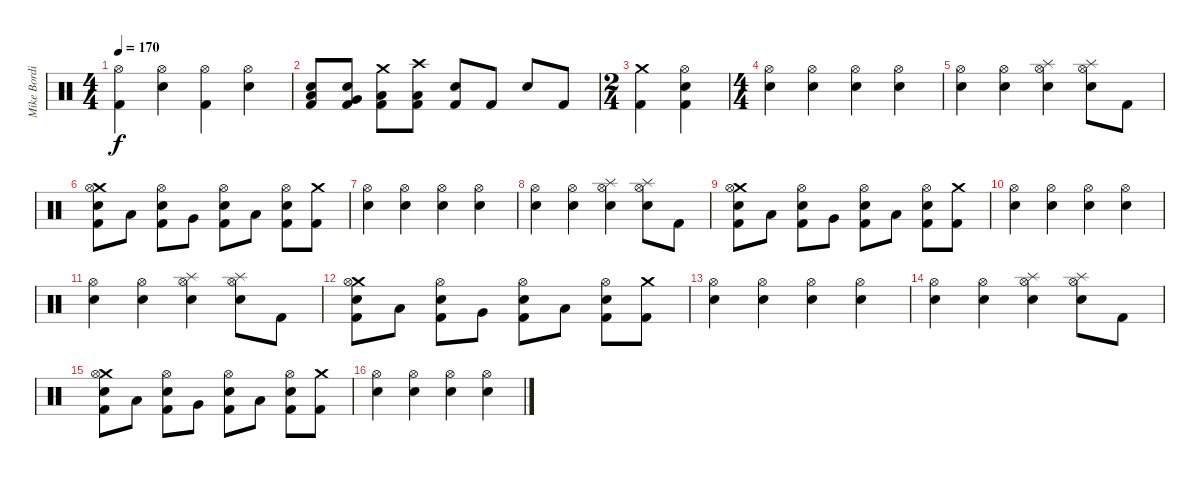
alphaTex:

\track ("Mike Bordin" "Mike Bordi") {instrument percussion}
\staff {score}
\articulation defaults
\ts (4 4)
\tempo 170
\clef neutral
\ks c
("Hi-Hat (open)" "Kick (hit) 2").4{dy f} ("Hi-Hat (open)" "Electric Snare (hit)").4 ("Hi-Hat (open)" "Kick (hit) 2").4 ("Hi-Hat (open)" "Electric Snare (hit)").4 |
("Electric Snare (hit)" "Low Tom (hit)" "Kick (hit) 2").8 ("Electric Snare (hit)" "Very Low Tom (hit)" "Kick (hit) 2").8 ("Crash medium (hit)" "Low Floor Tom (hit)" "Kick (hit) 2").8 ("Crash high (hit)" "Low Floor Tom (hit)" "Kick (hit) 2").8 ("Electric Snare (hit)" "Kick (hit) 2").8 "Kick (hit) 2".8 "Electric Snare (hit)".8 "Kick (hit) 2".8 |
\ts (2 4)
("Crash medium (hit)" "Kick (hit) 2").4 ("Hi-Hat (open)" "Electric Snare (hit)" "Kick (hit) 2").4 |
\ts (4 4)
("Hi-Hat (open)" "Electric Snare (hit)").4 ("Hi-Hat (open)" "Electric Snare (hit)").4 ("Hi-Hat (open)" "Electric Snare (hit)").4 ("Hi-Hat (open)" "Electric Snare (hit)").4 |
("Hi-Hat (open)" "Electric Snare (hit)").4 ("Hi-Hat (open)" "Electric Snare (hit)").4 ("Splash (hit)" "Hi-Hat (open)" "Electric Snare (hit)").4 ("Splash (hit)" "Hi-Hat (open)" "Electric Snare (hit)").8 "Kick (hit) 2".8 |
("Crash medium (hit)" "Hi-Hat (open)" "Electric Snare (hit)" "Kick (hit) 2").8 "Low Floor Tom (hit)".8 ("Hi-Hat (open)" "Electric Snare (hit)" "Kick (hit) 2").8 "Very Low Tom (hit)".8 ("Hi-Hat (open)" "Electric Snare (hit)" "Kick (hit) 2").8 "Low Floor Tom (hit)".8 ("Hi-Hat (open)" "Electric Snare (hit)" "Kick (hit) 2").8 ("Crash medium (hit)" "Kick (hit) 2").8 |
("Hi-Hat (open)" "Electric Snare (hit)").4 ("Hi-Hat (open)" "Electric Snare (hit)").4 ("Hi-Hat (open)" "Electric Snare (hit)").4 ("Hi-Hat (open)" "Electric Snare (hit)").4 |
("Hi-Hat (open)" "Electric Snare (hit)").4 ("Hi-Hat (open)" "Electric Snare (hit)").4 ("Splash (hit)" "Hi-Hat (open)" "Electric Snare (hit)").4 ("Splash (hit)" "Hi-Hat (open)" "Electric Snare (hit)").8 "Kick (hit) 2".8 |
("Crash medium (hit)" "Hi-Hat (open)" "Electric Snare (hit)" "Kick (hit) 2").8 "Low Floor Tom (hit)".8 ("Hi-Hat (open)" "Electric Snare (hit)" "Kick (hit) 2").8 "Very Low Tom (hit)".8 ("Hi-Hat (open)" "Electric Snare (hit)" "Kick (hit) 2").8 "Low Floor Tom (hit)".8 ("Hi-Hat (open)" "Electric Snare (hit)" "Kick (hit) 2").8 ("Crash medium (hit)" "Kick (hit) 2").8 |
("Hi-Hat (open)" "Electric Snare (hit)").4 ("Hi-Hat (open)" "Electric Snare (hit)").4 ("Hi-Hat (open)" "Electric Snare (hit)").4 ("Hi-Hat (open)" "Electric Snare (hit)").4 |
("Hi-Hat (open)" "Electric Snare (hit)").4 ("Hi-Hat (open)" "Electric Snare (hit)").4 ("Splash (hit)" "Hi-Hat (open)" "Electric Snare (hit)").4 ("Splash (hit)" "Hi-Hat (open)" "Electric Snare (hit)").8 "Kick (hit) 2".8 |
("Crash medium (hit)" "Hi-Hat (open)" "Electric Snare (hit)" "Kick (hit) 2").8 "Low Floor Tom (hit)".8 ("Hi-Hat (open)" "Electric Snare (hit)" "Kick (hit) 2").8 "Very Low Tom (hit)".8 ("Hi-Hat (open)" "Electric Snare (hit)" "Kick (hit) 2").8 "Low Floor Tom (hit)".8 ("Hi-Hat (open)" "Electric Snare (hit)" "Kick (hit) 2").8 ("Crash medium (hit)" "Kick (hit) 2").8 |
("Hi-Hat (open)" "Electric Snare (hit)").4 ("Hi-Hat (open)" "Electric Snare (hit)").4 ("Hi-Hat (open)" "Electric Snare (hit)").4 ("Hi-Hat (open)" "Electric Snare (hit)").4 |
("Hi-Hat (open)" "Electric Snare (hit)").4 ("Hi-Hat (open)" "Electric Snare (hit)").4 ("Splash (hit)" "Hi-Hat (open)" "Electric Snare (hit)").4 ("Splash (hit)" "Hi-Hat (open)" "Electric Snare (hit)").8 "Kick (hit) 2".8 |
("Crash medium (hit)" "Hi-Hat (open)" "Electric Snare (hit)" "Kick (hit) 2").8 "Low Floor Tom (hit)".8 ("Hi-Hat (open)" "Electric Snare (hit)" "Kick (hit) 2").8 "Very Low Tom (hit)".8 ("Hi-Hat (open)" "Electric Snare (hit)" "Kick (hit) 2").8 "Low Floor Tom (hit)".8 ("Hi-Hat (open)" "Electric Snare (hit)" "Kick (hit) 2").8 ("Crash medium (hit)" "Kick (hit) 2").8 |
("Hi-Hat (open)" "Electric Snare (hit)").4 ("Hi-Hat (open)" "Electric Snare (hit)").4 ("Hi-Hat (open)" "Electric Snare (hit)").4 ("Hi-Hat (open)" "Electric Snare (hit)").4
